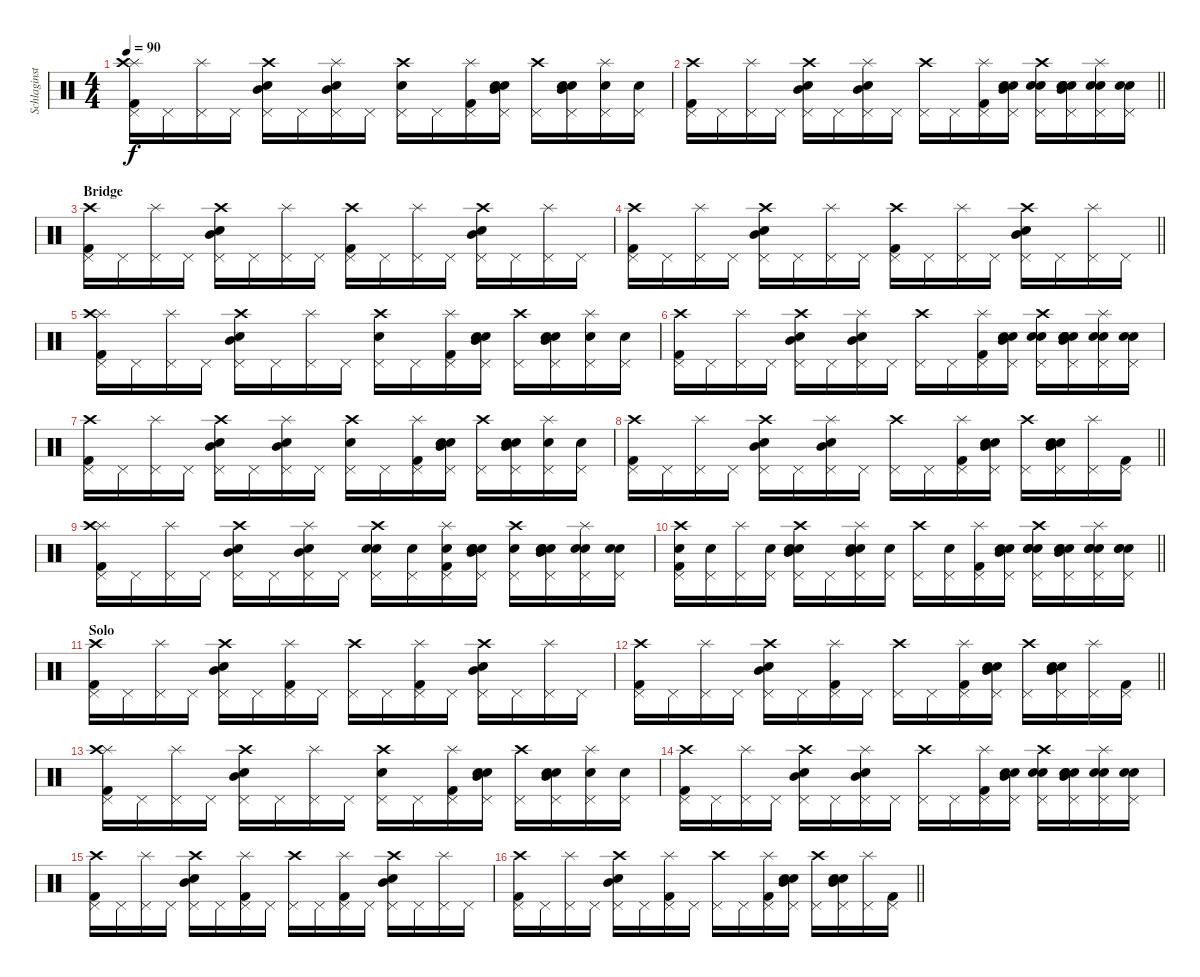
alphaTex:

\track ("Schlaginstrumente - Auswahl" "Schlaginst") {instrument percussion}
\staff {score}
\articulation defaults
\ts (4 4)
\tempo 90
\clef neutral
\ks c
("Splash (hit)" "Crash high (hit)" "Kick (hit) 2" "Pedal Hi-Hat (hit)").16{dy f} "Pedal Hi-Hat (hit)".16 ("Splash (hit)" "Pedal Hi-Hat (hit)").16 "Pedal Hi-Hat (hit)".16 ("Mid Tom (hit)" "Snare (hit) 2" "Crash high (hit)" "Pedal Hi-Hat (hit)").16 "Pedal Hi-Hat (hit)".16 ("Snare (hit) 2" "Mid Tom (hit)" "Splash (hit)" "Pedal Hi-Hat (hit)").16 "Pedal Hi-Hat (hit)".16 ("Crash high (hit)" "Snare (hit) 2" "Pedal Hi-Hat (hit)").16 "Pedal Hi-Hat (hit)".16 ("Splash (hit)" "Kick (hit) 2" "Pedal Hi-Hat (hit)").16 ("Mid Tom (hit)" "Snare (hit) 2" "Electric Snare (hit)" "Pedal Hi-Hat (hit)").16 ("Crash high (hit)" "Pedal Hi-Hat (hit)").16 ("Mid Tom (hit)" "Snare (hit) 2" "Electric Snare (hit)" "Pedal Hi-Hat (hit)").16 ("Snare (hit) 2" "Splash (hit)" "Pedal Hi-Hat (hit)").16 ("Snare (hit) 2" "Pedal Hi-Hat (hit)").16 |
\barLineRight lightlight
("Crash high (hit)" "Kick (hit) 2" "Pedal Hi-Hat (hit)").16 "Pedal Hi-Hat (hit)".16 ("Splash (hit)" "Pedal Hi-Hat (hit)").16 "Pedal Hi-Hat (hit)".16 ("Mid Tom (hit)" "Snare (hit) 2" "Crash high (hit)" "Pedal Hi-Hat (hit)").16 "Pedal Hi-Hat (hit)".16 ("Snare (hit) 2" "Mid Tom (hit)" "Splash (hit)" "Pedal Hi-Hat (hit)").16 "Pedal Hi-Hat (hit)".16 ("Crash high (hit)" "Pedal Hi-Hat (hit)").16 "Pedal Hi-Hat (hit)".16 ("Splash (hit)" "Kick (hit) 2" "Pedal Hi-Hat (hit)").16 ("Mid Tom (hit)" "Snare (hit) 2" "Electric Snare (hit)" "Pedal Hi-Hat (hit)").16 ("Crash high (hit)" "Electric Snare (hit)" "Pedal Hi-Hat (hit)" "Snare (hit) 2").16 ("Mid Tom (hit)" "Snare (hit) 2" "Electric Snare (hit)" "Pedal Hi-Hat (hit)" "Snare (hit) 2").16 ("Splash (hit)" "Electric Snare (hit)" "Pedal Hi-Hat (hit)" "Snare (hit) 2").16 ("Electric Snare (hit)" "Pedal Hi-Hat (hit)" "Snare (hit) 2").16 |
\section ("" "Bridge")
("Crash high (hit)" "Kick (hit) 2" "Pedal Hi-Hat (hit)").16 "Pedal Hi-Hat (hit)".16 ("Splash (hit)" "Pedal Hi-Hat (hit)").16 "Pedal Hi-Hat (hit)".16 ("Mid Tom (hit)" "Snare (hit) 2" "Crash high (hit)" "Pedal Hi-Hat (hit)").16 "Pedal Hi-Hat (hit)".16 ("Splash (hit)" "Pedal Hi-Hat (hit)").16 "Pedal Hi-Hat (hit)".16 ("Crash high (hit)" "Kick (hit) 2" "Pedal Hi-Hat (hit)").16 "Pedal Hi-Hat (hit)".16 ("Splash (hit)" "Pedal Hi-Hat (hit)").16 "Pedal Hi-Hat (hit)".16 ("Mid Tom (hit)" "Snare (hit) 2" "Crash high (hit)" "Pedal Hi-Hat (hit)").16 "Pedal Hi-Hat (hit)".16 ("Splash (hit)" "Pedal Hi-Hat (hit)").16 "Pedal Hi-Hat (hit)".16 |
\barLineRight lightlight
("Crash high (hit)" "Kick (hit) 2" "Pedal Hi-Hat (hit)").16 "Pedal Hi-Hat (hit)".16 ("Splash (hit)" "Pedal Hi-Hat (hit)").16 "Pedal Hi-Hat (hit)".16 ("Mid Tom (hit)" "Snare (hit) 2" "Crash high (hit)" "Pedal Hi-Hat (hit)").16 "Pedal Hi-Hat (hit)".16 ("Splash (hit)" "Pedal Hi-Hat (hit)").16 "Pedal Hi-Hat (hit)".16 ("Crash high (hit)" "Kick (hit) 2" "Pedal Hi-Hat (hit)").16 "Pedal Hi-Hat (hit)".16 ("Splash (hit)" "Pedal Hi-Hat (hit)").16 "Pedal Hi-Hat (hit)".16 ("Mid Tom (hit)" "Snare (hit) 2" "Crash high (hit)" "Pedal Hi-Hat (hit)").16 "Pedal Hi-Hat (hit)".16 ("Splash (hit)" "Pedal Hi-Hat (hit)").16 "Pedal Hi-Hat (hit)".16 |
("Splash (hit)" "Crash high (hit)" "Kick (hit) 2" "Pedal Hi-Hat (hit)").16 "Pedal Hi-Hat (hit)".16 ("Splash (hit)" "Pedal Hi-Hat (hit)").16 "Pedal Hi-Hat (hit)".16 ("Mid Tom (hit)" "Snare (hit) 2" "Crash high (hit)" "Pedal Hi-Hat (hit)").16 "Pedal Hi-Hat (hit)".16 ("Splash (hit)" "Pedal Hi-Hat (hit)").16 "Pedal Hi-Hat (hit)".16 ("Crash high (hit)" "Snare (hit) 2" "Pedal Hi-Hat (hit)").16 "Pedal Hi-Hat (hit)".16 ("Splash (hit)" "Kick (hit) 2" "Pedal Hi-Hat (hit)").16 ("Mid Tom (hit)" "Snare (hit) 2" "Electric Snare (hit)" "Pedal Hi-Hat (hit)").16 ("Crash high (hit)" "Pedal Hi-Hat (hit)").16 ("Mid Tom (hit)" "Snare (hit) 2" "Electric Snare (hit)" "Pedal Hi-Hat (hit)").16 ("Snare (hit) 2" "Splash (hit)" "Pedal Hi-Hat (hit)").16 ("Snare (hit) 2" "Pedal Hi-Hat (hit)").16 |
("Crash high (hit)" "Kick (hit) 2" "Pedal Hi-Hat (hit)").16 "Pedal Hi-Hat (hit)".16 ("Splash (hit)" "Pedal Hi-Hat (hit)").16 "Pedal Hi-Hat (hit)".16 ("Mid Tom (hit)" "Snare (hit) 2" "Crash high (hit)" "Pedal Hi-Hat (hit)").16 "Pedal Hi-Hat (hit)".16 ("Snare (hit) 2" "Mid Tom (hit)" "Splash (hit)" "Pedal Hi-Hat (hit)").16 "Pedal Hi-Hat (hit)".16 ("Crash high (hit)" "Pedal Hi-Hat (hit)").16 "Pedal Hi-Hat (hit)".16 ("Splash (hit)" "Kick (hit) 2" "Pedal Hi-Hat (hit)").16 ("Mid Tom (hit)" "Snare (hit) 2" "Electric Snare (hit)" "Pedal Hi-Hat (hit)").16 ("Crash high (hit)" "Electric Snare (hit)" "Pedal Hi-Hat (hit)" "Snare (hit) 2").16 ("Mid Tom (hit)" "Snare (hit) 2" "Electric Snare (hit)" "Pedal Hi-Hat (hit)" "Snare (hit) 2").16 ("Splash (hit)" "Electric Snare (hit)" "Pedal Hi-Hat (hit)" "Snare (hit) 2").16 ("Electric Snare (hit)" "Pedal Hi-Hat (hit)" "Snare (hit) 2").16 |
("Crash high (hit)" "Kick (hit) 2" "Pedal Hi-Hat (hit)").16 "Pedal Hi-Hat (hit)".16 ("Splash (hit)" "Pedal Hi-Hat (hit)").16 "Pedal Hi-Hat (hit)".16 ("Mid Tom (hit)" "Snare (hit) 2" "Crash high (hit)" "Pedal Hi-Hat (hit)").16 "Pedal Hi-Hat (hit)".16 ("Snare (hit) 2" "Mid Tom (hit)" "Splash (hit)" "Pedal Hi-Hat (hit)").16 "Pedal Hi-Hat (hit)".16 ("Crash high (hit)" "Snare (hit) 2" "Pedal Hi-Hat (hit)").16 "Pedal Hi-Hat (hit)".16 ("Splash (hit)" "Kick (hit) 2" "Pedal Hi-Hat (hit)").16 ("Mid Tom (hit)" "Snare (hit) 2" "Electric Snare (hit)" "Pedal Hi-Hat (hit)").16 ("Crash high (hit)" "Pedal Hi-Hat (hit)").16 ("Mid Tom (hit)" "Snare (hit) 2" "Electric Snare (hit)" "Pedal Hi-Hat (hit)").16 ("Snare (hit) 2" "Splash (hit)" "Pedal Hi-Hat (hit)").16 ("Snare (hit) 2" "Pedal Hi-Hat (hit)").16 |
\barLineRight lightlight
("Crash high (hit)" "Kick (hit) 2" "Pedal Hi-Hat (hit)").16 "Pedal Hi-Hat (hit)".16 ("Splash (hit)" "Pedal Hi-Hat (hit)").16 "Pedal Hi-Hat (hit)".16 ("Mid Tom (hit)" "Snare (hit) 2" "Crash high (hit)" "Pedal Hi-Hat (hit)").16 "Pedal Hi-Hat (hit)".16 ("Snare (hit) 2" "Mid Tom (hit)" "Splash (hit)" "Pedal Hi-Hat (hit)").16 "Pedal Hi-Hat (hit)".16 ("Crash high (hit)" "Pedal Hi-Hat (hit)").16 "Pedal Hi-Hat (hit)".16 ("Splash (hit)" "Kick (hit) 2" "Pedal Hi-Hat (hit)").16 ("Mid Tom (hit)" "Snare (hit) 2" "Electric Snare (hit)" "Pedal Hi-Hat (hit)").16 ("Crash high (hit)" "Pedal Hi-Hat (hit)").16 ("Mid Tom (hit)" "Snare (hit) 2" "Electric Snare (hit)" "Pedal Hi-Hat (hit)").16 ("Splash (hit)" "Pedal Hi-Hat (hit)").16 ("Kick (hit) 2" "Pedal Hi-Hat (hit)").16 |
("Splash (hit)" "Crash high (hit)" "Kick (hit) 2" "Pedal Hi-Hat (hit)").16 "Pedal Hi-Hat (hit)".16 ("Splash (hit)" "Pedal Hi-Hat (hit)").16 "Pedal Hi-Hat (hit)".16 ("Mid Tom (hit)" "Snare (hit) 2" "Crash high (hit)" "Pedal Hi-Hat (hit)").16 "Pedal Hi-Hat (hit)".16 ("Snare (hit) 2" "Mid Tom (hit)" "Splash (hit)" "Pedal Hi-Hat (hit)").16 "Pedal Hi-Hat (hit)".16 ("Crash high (hit)" "Snare (hit) 2" "Pedal Hi-Hat (hit)" "Electric Snare (hit)").16 ("Pedal Hi-Hat (hit)" "Electric Snare (hit)").16 ("Splash (hit)" "Kick (hit) 2" "Pedal Hi-Hat (hit)" "Electric Snare (hit)").16 ("Mid Tom (hit)" "Snare (hit) 2" "Electric Snare (hit)" "Pedal Hi-Hat (hit)" "Electric Snare (hit)").16 ("Crash high (hit)" "Pedal Hi-Hat (hit)" "Electric Snare (hit)").16 ("Mid Tom (hit)" "Snare (hit) 2" "Electric Snare (hit)" "Pedal Hi-Hat (hit)" "Electric Snare (hit)").16 ("Snare (hit) 2" "Splash (hit)" "Pedal Hi-Hat (hit)" "Electric Snare (hit)").16 ("Snare (hit) 2" "Pedal Hi-Hat (hit)" "Electric Snare (hit)").16 |
\barLineRight lightlight
("Crash high (hit)" "Kick (hit) 2" "Pedal Hi-Hat (hit)" "Electric Snare (hit)").16 ("Pedal Hi-Hat (hit)" "Electric Snare (hit)").16 ("Splash (hit)" "Pedal Hi-Hat (hit)").16 ("Pedal Hi-Hat (hit)" "Electric Snare (hit)").16 ("Mid Tom (hit)" "Snare (hit) 2" "Crash high (hit)" "Pedal Hi-Hat (hit)" "Electric Snare (hit)").16 "Pedal Hi-Hat (hit)".16 ("Snare (hit) 2" "Mid Tom (hit)" "Splash (hit)" "Pedal Hi-Hat (hit)" "Electric Snare (hit)").16 ("Pedal Hi-Hat (hit)" "Electric Snare (hit)").16 ("Crash high (hit)" "Pedal Hi-Hat (hit)").16 ("Pedal Hi-Hat (hit)" "Electric Snare (hit)").16 ("Splash (hit)" "Kick (hit) 2" "Pedal Hi-Hat (hit)").16 ("Mid Tom (hit)" "Snare (hit) 2" "Electric Snare (hit)" "Pedal Hi-Hat (hit)").16 ("Electric Snare (hit)" "Crash high (hit)" "Electric Snare (hit)" "Pedal Hi-Hat (hit)" "Snare (hit) 2").16 ("Mid Tom (hit)" "Electric Snare (hit)" "Electric Snare (hit)" "Pedal Hi-Hat (hit)" "Snare (hit) 2").16 ("Electric Snare (hit)" "Splash (hit)" "Electric Snare (hit)" "Pedal Hi-Hat (hit)" "Snare (hit) 2").16 ("Electric Snare (hit)" "Electric Snare (hit)" "Pedal Hi-Hat (hit)" "Snare (hit) 2").16 |
\section ("" "Solo")
("Crash high (hit)" "Kick (hit) 2" "Pedal Hi-Hat (hit)").16 "Pedal Hi-Hat (hit)".16 ("Splash (hit)" "Pedal Hi-Hat (hit)").16 "Pedal Hi-Hat (hit)".16 ("Mid Tom (hit)" "Snare (hit) 2" "Crash high (hit)" "Pedal Hi-Hat (hit)").16 "Pedal Hi-Hat (hit)".16 ("Splash (hit)" "Kick (hit) 2" "Pedal Hi-Hat (hit)").16 "Pedal Hi-Hat (hit)".16 ("Crash high (hit)" "Pedal Hi-Hat (hit)").16 "Pedal Hi-Hat (hit)".16 ("Splash (hit)" "Kick (hit) 2" "Pedal Hi-Hat (hit)").16 "Pedal Hi-Hat (hit)".16 ("Mid Tom (hit)" "Crash high (hit)" "Snare (hit) 2" "Pedal Hi-Hat (hit)").16 "Pedal Hi-Hat (hit)".16 ("Splash (hit)" "Pedal Hi-Hat (hit)").16 "Pedal Hi-Hat (hit)".16 |
\barLineRight lightlight
("Crash high (hit)" "Kick (hit) 2" "Pedal Hi-Hat (hit)").16 "Pedal Hi-Hat (hit)".16 ("Splash (hit)" "Pedal Hi-Hat (hit)").16 "Pedal Hi-Hat (hit)".16 ("Mid Tom (hit)" "Snare (hit) 2" "Crash high (hit)" "Pedal Hi-Hat (hit)").16 "Pedal Hi-Hat (hit)".16 ("Splash (hit)" "Kick (hit) 2" "Pedal Hi-Hat (hit)").16 "Pedal Hi-Hat (hit)".16 ("Crash high (hit)" "Pedal Hi-Hat (hit)").16 "Pedal Hi-Hat (hit)".16 ("Splash (hit)" "Kick (hit) 2" "Pedal Hi-Hat (hit)").16 ("Mid Tom (hit)" "Snare (hit) 2" "Electric Snare (hit)" "Pedal Hi-Hat (hit)").16 ("Crash high (hit)" "Pedal Hi-Hat (hit)").16 ("Mid Tom (hit)" "Snare (hit) 2" "Electric Snare (hit)" "Pedal Hi-Hat (hit)").16 ("Splash (hit)" "Pedal Hi-Hat (hit)").16 ("Kick (hit) 2" "Pedal Hi-Hat (hit)").16 |
("Splash (hit)" "Crash high (hit)" "Kick (hit) 2" "Pedal Hi-Hat (hit)").16 "Pedal Hi-Hat (hit)".16 ("Splash (hit)" "Pedal Hi-Hat (hit)").16 "Pedal Hi-Hat (hit)".16 ("Mid Tom (hit)" "Snare (hit) 2" "Crash high (hit)" "Pedal Hi-Hat (hit)").16 "Pedal Hi-Hat (hit)".16 ("Splash (hit)" "Pedal Hi-Hat (hit)").16 "Pedal Hi-Hat (hit)".16 ("Crash high (hit)" "Snare (hit) 2" "Pedal Hi-Hat (hit)").16 "Pedal Hi-Hat (hit)".16 ("Splash (hit)" "Kick (hit) 2" "Pedal Hi-Hat (hit)").16 ("Mid Tom (hit)" "Snare (hit) 2" "Electric Snare (hit)" "Pedal Hi-Hat (hit)").16 ("Crash high (hit)" "Pedal Hi-Hat (hit)").16 ("Mid Tom (hit)" "Snare (hit) 2" "Electric Snare (hit)" "Pedal Hi-Hat (hit)").16 ("Snare (hit) 2" "Splash (hit)" "Pedal Hi-Hat (hit)").16 ("Snare (hit) 2" "Pedal Hi-Hat (hit)").16 |
("Crash high (hit)" "Kick (hit) 2" "Pedal Hi-Hat (hit)").16 "Pedal Hi-Hat (hit)".16 ("Splash (hit)" "Pedal Hi-Hat (hit)").16 "Pedal Hi-Hat (hit)".16 ("Mid Tom (hit)" "Snare (hit) 2" "Crash high (hit)" "Pedal Hi-Hat (hit)").16 "Pedal Hi-Hat (hit)".16 ("Snare (hit) 2" "Mid Tom (hit)" "Splash (hit)" "Pedal Hi-Hat (hit)").16 "Pedal Hi-Hat (hit)".16 ("Crash high (hit)" "Pedal Hi-Hat (hit)").16 "Pedal Hi-Hat (hit)".16 ("Splash (hit)" "Kick (hit) 2" "Pedal Hi-Hat (hit)").16 ("Mid Tom (hit)" "Snare (hit) 2" "Electric Snare (hit)" "Pedal Hi-Hat (hit)").16 ("Crash high (hit)" "Electric Snare (hit)" "Pedal Hi-Hat (hit)" "Snare (hit) 2").16 ("Mid Tom (hit)" "Snare (hit) 2" "Electric Snare (hit)" "Pedal Hi-Hat (hit)" "Snare (hit) 2").16 ("Splash (hit)" "Electric Snare (hit)" "Pedal Hi-Hat (hit)" "Snare (hit) 2").16 ("Electric Snare (hit)" "Pedal Hi-Hat (hit)" "Snare (hit) 2").16 |
("Crash high (hit)" "Kick (hit) 2" "Pedal Hi-Hat (hit)").16 "Pedal Hi-Hat (hit)".16 ("Splash (hit)" "Pedal Hi-Hat (hit)").16 "Pedal Hi-Hat (hit)".16 ("Mid Tom (hit)" "Snare (hit) 2" "Crash high (hit)" "Pedal Hi-Hat (hit)").16 "Pedal Hi-Hat (hit)".16 ("Splash (hit)" "Kick (hit) 2" "Pedal Hi-Hat (hit)").16 "Pedal Hi-Hat (hit)".16 ("Crash high (hit)" "Pedal Hi-Hat (hit)").16 "Pedal Hi-Hat (hit)".16 ("Splash (hit)" "Kick (hit) 2" "Pedal Hi-Hat (hit)").16 "Pedal Hi-Hat (hit)".16 ("Mid Tom (hit)" "Crash high (hit)" "Snare (hit) 2" "Pedal Hi-Hat (hit)").16 "Pedal Hi-Hat (hit)".16 ("Splash (hit)" "Pedal Hi-Hat (hit)").16 "Pedal Hi-Hat (hit)".16 |
\barLineRight lightlight
("Crash high (hit)" "Kick (hit) 2" "Pedal Hi-Hat (hit)").16 "Pedal Hi-Hat (hit)".16 ("Splash (hit)" "Pedal Hi-Hat (hit)").16 "Pedal Hi-Hat (hit)".16 ("Mid Tom (hit)" "Snare (hit) 2" "Crash high (hit)" "Pedal Hi-Hat (hit)").16 "Pedal Hi-Hat (hit)".16 ("Splash (hit)" "Kick (hit) 2" "Pedal Hi-Hat (hit)").16 "Pedal Hi-Hat (hit)".16 ("Crash high (hit)" "Pedal Hi-Hat (hit)").16 "Pedal Hi-Hat (hit)".16 ("Splash (hit)" "Kick (hit) 2" "Pedal Hi-Hat (hit)").16 ("Mid Tom (hit)" "Snare (hit) 2" "Electric Snare (hit)" "Pedal Hi-Hat (hit)").16 ("Crash high (hit)" "Pedal Hi-Hat (hit)").16 ("Mid Tom (hit)" "Snare (hit) 2" "Electric Snare (hit)" "Pedal Hi-Hat (hit)").16 ("Splash (hit)" "Pedal Hi-Hat (hit)").16 ("Kick (hit) 2" "Pedal Hi-Hat (hit)").16
